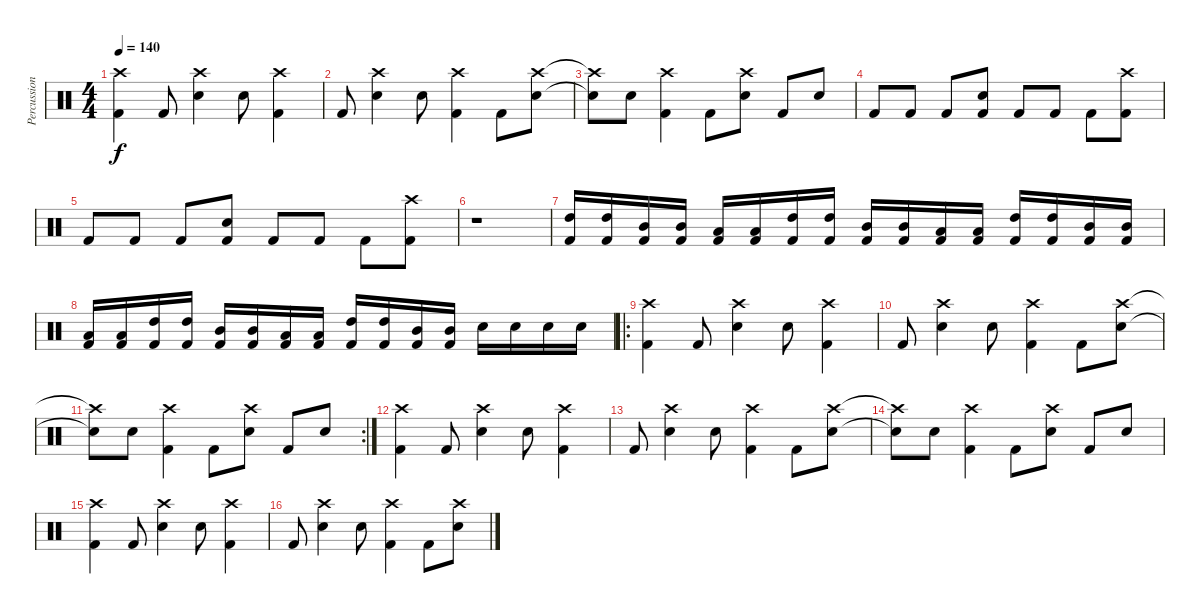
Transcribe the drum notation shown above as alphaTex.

\track ("Percussion" "Percussion") {instrument percussion}
\staff {score}
\articulation defaults
\ts (4 4)
\tempo 140
\clef neutral
\ks c
("Crash high (hit)" "Kick (hit) 2").4{dy f} "Kick (hit) 2".8 ("Crash high (hit)" "Electric Snare (hit)").4 "Electric Snare (hit)".8 ("Crash high (hit)" "Kick (hit) 2").4 |
"Kick (hit) 2".8 ("Crash high (hit)" "Electric Snare (hit)").4 "Electric Snare (hit)".8 ("Crash high (hit)" "Kick (hit) 2").4 "Kick (hit) 2".8 ("Crash high (hit)" "Electric Snare (hit)").8 |
("Crash high (hit)"{t} "Snare (hit)"{t}).8 "Electric Snare (hit)".8 ("Crash high (hit)" "Kick (hit) 2").4 "Kick (hit) 2".8 ("Crash high (hit)" "Electric Snare (hit)").8 "Kick (hit) 2".8 "Electric Snare (hit)".8 |
"Kick (hit) 2".8 "Kick (hit) 2".8 "Kick (hit) 2".8 ("Electric Snare (hit)" "Kick (hit) 2").8 "Kick (hit) 2".8 "Kick (hit) 2".8 "Kick (hit) 2".8 ("Crash high (hit)" "Kick (hit) 2").8 |
"Kick (hit) 2".8 "Kick (hit) 2".8 "Kick (hit) 2".8 ("Electric Snare (hit)" "Kick (hit) 2").8 "Kick (hit) 2".8 "Kick (hit) 2".8 "Kick (hit) 2".8 ("Crash high (hit)" "Kick (hit) 2").8 |
r.1 |
("High Tom (hit)" "Kick (hit) 2").16 ("High Tom (hit)" "Kick (hit) 2").16 ("Mid Tom (hit)" "Kick (hit) 2").16 ("Mid Tom (hit)" "Kick (hit) 2").16 ("Low Floor Tom (hit)" "Kick (hit) 2").16 ("Low Floor Tom (hit)" "Kick (hit) 2").16 ("High Tom (hit)" "Kick (hit) 2").16 ("High Tom (hit)" "Kick (hit) 2").16 ("Mid Tom (hit)" "Kick (hit) 2").16 ("Mid Tom (hit)" "Kick (hit) 2").16 ("Low Floor Tom (hit)" "Kick (hit) 2").16 ("Low Floor Tom (hit)" "Kick (hit) 2").16 ("High Tom (hit)" "Kick (hit) 2").16 ("High Tom (hit)" "Kick (hit) 2").16 ("Mid Tom (hit)" "Kick (hit) 2").16 ("Mid Tom (hit)" "Kick (hit) 2").16 |
("Low Floor Tom (hit)" "Kick (hit) 2").16 ("Low Floor Tom (hit)" "Kick (hit) 2").16 ("High Tom (hit)" "Kick (hit) 2").16 ("High Tom (hit)" "Kick (hit) 2").16 ("Mid Tom (hit)" "Kick (hit) 2").16 ("Mid Tom (hit)" "Kick (hit) 2").16 ("Low Floor Tom (hit)" "Kick (hit) 2").16 ("Low Floor Tom (hit)" "Kick (hit) 2").16 ("High Tom (hit)" "Kick (hit) 2").16 ("High Tom (hit)" "Kick (hit) 2").16 ("Mid Tom (hit)" "Kick (hit) 2").16 ("Mid Tom (hit)" "Kick (hit) 2").16 "Electric Snare (hit)".16 "Electric Snare (hit)".16 "Electric Snare (hit)".16 "Electric Snare (hit)".16 |
\ro
("Crash high (hit)" "Kick (hit) 2").4 "Kick (hit) 2".8 ("Crash high (hit)" "Electric Snare (hit)").4 "Electric Snare (hit)".8 ("Crash high (hit)" "Kick (hit) 2").4 |
"Kick (hit) 2".8 ("Crash high (hit)" "Electric Snare (hit)").4 "Electric Snare (hit)".8 ("Crash high (hit)" "Kick (hit) 2").4 "Kick (hit) 2".8 ("Crash high (hit)" "Electric Snare (hit)").8 |
\rc 2
("Crash high (hit)"{t} "Snare (hit)"{t}).8 "Electric Snare (hit)".8 ("Crash high (hit)" "Kick (hit) 2").4 "Kick (hit) 2".8 ("Crash high (hit)" "Electric Snare (hit)").8 "Kick (hit) 2".8 "Electric Snare (hit)".8 |
("Crash high (hit)" "Kick (hit) 2").4 "Kick (hit) 2".8 ("Crash high (hit)" "Electric Snare (hit)").4 "Electric Snare (hit)".8 ("Crash high (hit)" "Kick (hit) 2").4 |
"Kick (hit) 2".8 ("Crash high (hit)" "Electric Snare (hit)").4 "Electric Snare (hit)".8 ("Crash high (hit)" "Kick (hit) 2").4 "Kick (hit) 2".8 ("Crash high (hit)" "Electric Snare (hit)").8 |
("Crash high (hit)"{t} "Snare (hit)"{t}).8 "Electric Snare (hit)".8 ("Crash high (hit)" "Kick (hit) 2").4 "Kick (hit) 2".8 ("Crash high (hit)" "Electric Snare (hit)").8 "Kick (hit) 2".8 "Electric Snare (hit)".8 |
("Crash high (hit)" "Kick (hit) 2").4 "Kick (hit) 2".8 ("Crash high (hit)" "Electric Snare (hit)").4 "Electric Snare (hit)".8 ("Crash high (hit)" "Kick (hit) 2").4 |
"Kick (hit) 2".8 ("Crash high (hit)" "Electric Snare (hit)").4 "Electric Snare (hit)".8 ("Crash high (hit)" "Kick (hit) 2").4 "Kick (hit) 2".8 ("Crash high (hit)" "Electric Snare (hit)").8
